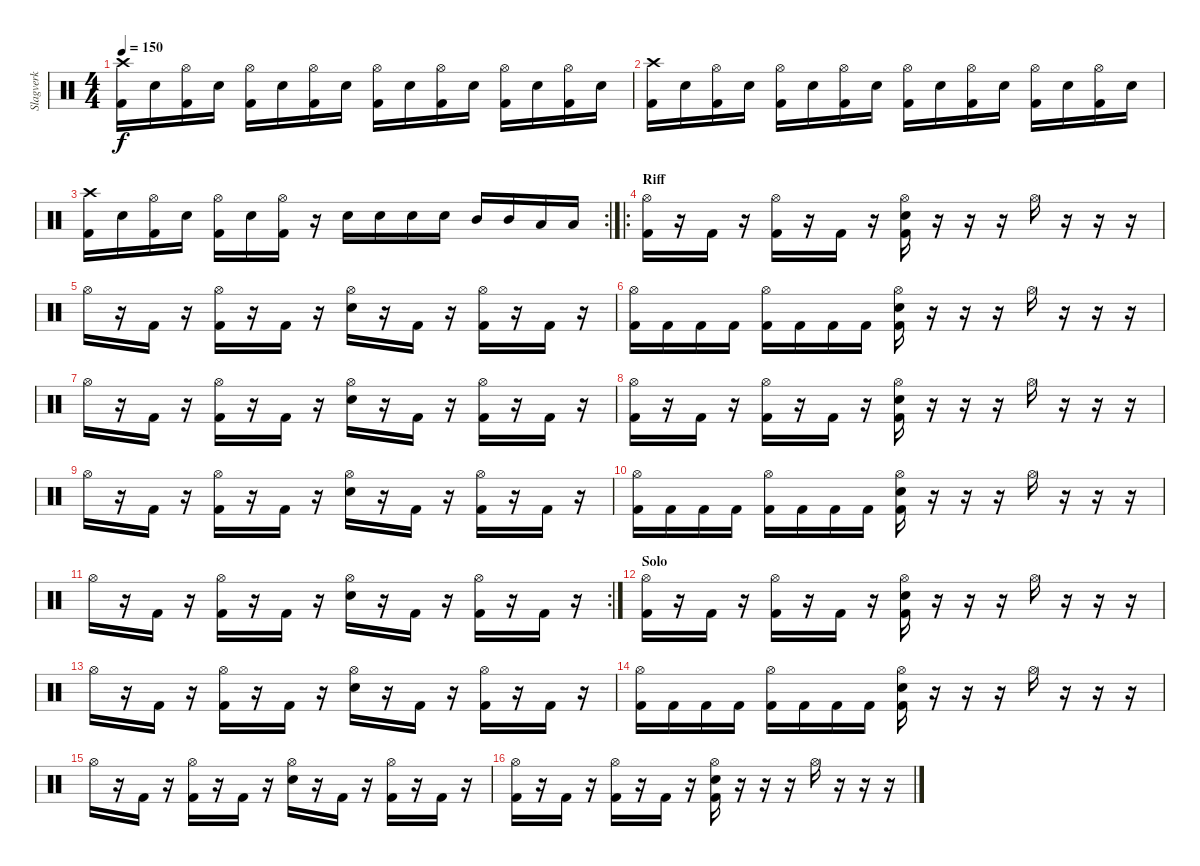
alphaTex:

\track ("Slagverk" "Slagverk") {instrument percussion}
\staff {score}
\articulation defaults
\ts (4 4)
\tempo 150
\clef neutral
\ks c
("Kick (hit) 2" "Crash high (hit)").16{dy f} "Snare (hit) 2".16 ("Kick (hit) 2" "Hi-Hat (open)").16 "Snare (hit) 2".16 ("Kick (hit) 2" "Hi-Hat (open)").16 "Snare (hit) 2".16 ("Kick (hit) 2" "Hi-Hat (open)").16 "Snare (hit) 2".16 ("Kick (hit) 2" "Hi-Hat (open)").16 "Snare (hit) 2".16 ("Kick (hit) 2" "Hi-Hat (open)").16 "Snare (hit) 2".16 ("Kick (hit) 2" "Hi-Hat (open)").16 "Snare (hit) 2".16 ("Kick (hit) 2" "Hi-Hat (open)").16 "Snare (hit) 2".16 |
("Kick (hit) 2" "Crash high (hit)").16 "Snare (hit) 2".16 ("Kick (hit) 2" "Hi-Hat (open)").16 "Snare (hit) 2".16 ("Kick (hit) 2" "Hi-Hat (open)").16 "Snare (hit) 2".16 ("Kick (hit) 2" "Hi-Hat (open)").16 "Snare (hit) 2".16 ("Kick (hit) 2" "Hi-Hat (open)").16 "Snare (hit) 2".16 ("Kick (hit) 2" "Hi-Hat (open)").16 "Snare (hit) 2".16 ("Kick (hit) 2" "Hi-Hat (open)").16 "Snare (hit) 2".16 ("Kick (hit) 2" "Hi-Hat (open)").16 "Snare (hit) 2".16 |
\rc 2
("Kick (hit) 2" "Crash high (hit)").16 "Snare (hit) 2".16 ("Kick (hit) 2" "Hi-Hat (open)").16 "Snare (hit) 2".16 ("Kick (hit) 2" "Hi-Hat (open)").16 "Snare (hit) 2".16 ("Kick (hit) 2" "Hi-Hat (open)").16 r.16 "Snare (hit) 2".16 "Snare (hit) 2".16 "Snare (hit) 2".16 "Snare (hit) 2".16 "Mid Tom (hit)".16 "Mid Tom (hit)".16 "Low Tom (hit)".16 "Low Tom (hit)".16 |
\ro
\section ("" "Riff")
("Hi-Hat (open)" "Kick (hit) 2").16 r.16 "Kick (hit) 2".16 r.16 ("Hi-Hat (open)" "Kick (hit) 2").16 r.16 "Kick (hit) 2".16 r.16 ("Hi-Hat (open)" "Snare (hit) 2" "Kick (hit) 2").16 r.16 r.16 r.16 "Hi-Hat (open)".16 r.16 r.16 r.16 |
"Hi-Hat (open)".16 r.16 "Kick (hit) 2".16 r.16 ("Hi-Hat (open)" "Kick (hit) 2").16 r.16 "Kick (hit) 2".16 r.16 ("Hi-Hat (open)" "Snare (hit) 2").16 r.16 "Kick (hit) 2".16 r.16 ("Hi-Hat (open)" "Kick (hit) 2").16 r.16 "Kick (hit) 2".16 r.16 |
("Hi-Hat (open)" "Kick (hit) 2").16 "Kick (hit) 2".16 "Kick (hit) 2".16 "Kick (hit) 2".16 ("Hi-Hat (open)" "Kick (hit) 2").16 "Kick (hit) 2".16 "Kick (hit) 2".16 "Kick (hit) 2".16 ("Hi-Hat (open)" "Snare (hit) 2" "Kick (hit) 2").16 r.16 r.16 r.16 "Hi-Hat (open)".16 r.16 r.16 r.16 |
"Hi-Hat (open)".16 r.16 "Kick (hit) 2".16 r.16 ("Hi-Hat (open)" "Kick (hit) 2").16 r.16 "Kick (hit) 2".16 r.16 ("Hi-Hat (open)" "Snare (hit) 2").16 r.16 "Kick (hit) 2".16 r.16 ("Hi-Hat (open)" "Kick (hit) 2").16 r.16 "Kick (hit) 2".16 r.16 |
("Hi-Hat (open)" "Kick (hit) 2").16 r.16 "Kick (hit) 2".16 r.16 ("Hi-Hat (open)" "Kick (hit) 2").16 r.16 "Kick (hit) 2".16 r.16 ("Hi-Hat (open)" "Snare (hit) 2" "Kick (hit) 2").16 r.16 r.16 r.16 "Hi-Hat (open)".16 r.16 r.16 r.16 |
"Hi-Hat (open)".16 r.16 "Kick (hit) 2".16 r.16 ("Hi-Hat (open)" "Kick (hit) 2").16 r.16 "Kick (hit) 2".16 r.16 ("Hi-Hat (open)" "Snare (hit) 2").16 r.16 "Kick (hit) 2".16 r.16 ("Hi-Hat (open)" "Kick (hit) 2").16 r.16 "Kick (hit) 2".16 r.16 |
("Hi-Hat (open)" "Kick (hit) 2").16 "Kick (hit) 2".16 "Kick (hit) 2".16 "Kick (hit) 2".16 ("Hi-Hat (open)" "Kick (hit) 2").16 "Kick (hit) 2".16 "Kick (hit) 2".16 "Kick (hit) 2".16 ("Hi-Hat (open)" "Snare (hit) 2" "Kick (hit) 2").16 r.16 r.16 r.16 "Hi-Hat (open)".16 r.16 r.16 r.16 |
\rc 2 "Hi-Hat (open)".16
r.16 "Kick (hit) 2".16 r.16 ("Hi-Hat (open)" "Kick (hit) 2").16 r.16 "Kick (hit) 2".16 r.16 ("Hi-Hat (open)" "Snare (hit) 2").16 r.16 "Kick (hit) 2".16 r.16 ("Hi-Hat (open)" "Kick (hit) 2").16 r.16 "Kick (hit) 2".16 r.16 |
\section ("" "Solo")
("Hi-Hat (open)" "Kick (hit) 2").16 r.16 "Kick (hit) 2".16 r.16 ("Hi-Hat (open)" "Kick (hit) 2").16 r.16 "Kick (hit) 2".16 r.16 ("Hi-Hat (open)" "Snare (hit) 2" "Kick (hit) 2").16 r.16 r.16 r.16 "Hi-Hat (open)".16 r.16 r.16 r.16 |
"Hi-Hat (open)".16 r.16 "Kick (hit) 2".16 r.16 ("Hi-Hat (open)" "Kick (hit) 2").16 r.16 "Kick (hit) 2".16 r.16 ("Hi-Hat (open)" "Snare (hit) 2").16 r.16 "Kick (hit) 2".16 r.16 ("Hi-Hat (open)" "Kick (hit) 2").16 r.16 "Kick (hit) 2".16 r.16 |
("Hi-Hat (open)" "Kick (hit) 2").16 "Kick (hit) 2".16 "Kick (hit) 2".16 "Kick (hit) 2".16 ("Hi-Hat (open)" "Kick (hit) 2").16 "Kick (hit) 2".16 "Kick (hit) 2".16 "Kick (hit) 2".16 ("Hi-Hat (open)" "Snare (hit) 2" "Kick (hit) 2").16 r.16 r.16 r.16 "Hi-Hat (open)".16 r.16 r.16 r.16 |
"Hi-Hat (open)".16 r.16 "Kick (hit) 2".16 r.16 ("Hi-Hat (open)" "Kick (hit) 2").16 r.16 "Kick (hit) 2".16 r.16 ("Hi-Hat (open)" "Snare (hit) 2").16 r.16 "Kick (hit) 2".16 r.16 ("Hi-Hat (open)" "Kick (hit) 2").16 r.16 "Kick (hit) 2".16 r.16 |
("Hi-Hat (open)" "Kick (hit) 2").16 r.16 "Kick (hit) 2".16 r.16 ("Hi-Hat (open)" "Kick (hit) 2").16 r.16 "Kick (hit) 2".16 r.16 ("Hi-Hat (open)" "Snare (hit) 2" "Kick (hit) 2").16 r.16 r.16 r.16 "Hi-Hat (open)".16 r.16 r.16 r.16
